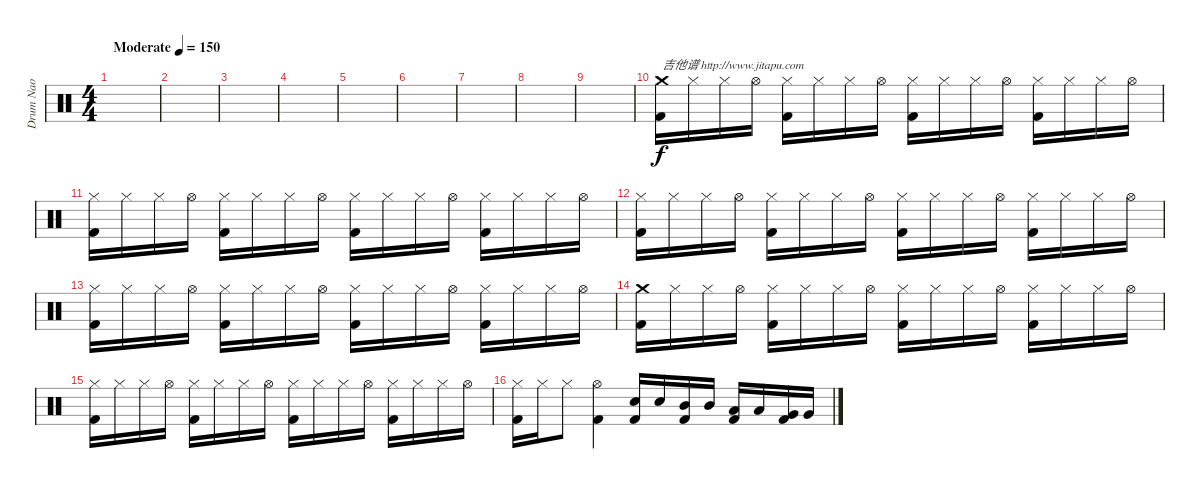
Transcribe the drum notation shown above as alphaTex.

\track ("Drum Nao" "Drum Nao") {instrument percussion}
\staff {score}
\articulation defaults
\ts (4 4)
\tempo (150 "Moderate")
\clef neutral
\ks c
|
|
|
|
|
|
|
|
|
("Crash medium (hit)" "Kick (hit) 2").16{txt "吉他谱 http://www.jitapu.com"} "Hi-Hat (closed)".16 "Hi-Hat (closed)".16 "Hi-Hat (open)".16 ("Hi-Hat (closed)" "Kick (hit) 2").16 "Hi-Hat (closed)".16 "Hi-Hat (closed)".16 "Hi-Hat (open)".16 ("Hi-Hat (closed)" "Kick (hit) 2").16 "Hi-Hat (closed)".16 "Hi-Hat (closed)".16 "Hi-Hat (open)".16 ("Hi-Hat (closed)" "Kick (hit) 2").16 "Hi-Hat (closed)".16 "Hi-Hat (closed)".16 "Hi-Hat (open)".16 |
("Hi-Hat (closed)" "Kick (hit) 2").16 "Hi-Hat (closed)".16 "Hi-Hat (closed)".16 "Hi-Hat (open)".16 ("Hi-Hat (closed)" "Kick (hit) 2").16 "Hi-Hat (closed)".16 "Hi-Hat (closed)".16 "Hi-Hat (open)".16 ("Hi-Hat (closed)" "Kick (hit) 2").16 "Hi-Hat (closed)".16 "Hi-Hat (closed)".16 "Hi-Hat (open)".16 ("Hi-Hat (closed)" "Kick (hit) 2").16 "Hi-Hat (closed)".16 "Hi-Hat (closed)".16 "Hi-Hat (open)".16 |
("Hi-Hat (closed)" "Kick (hit) 2").16 "Hi-Hat (closed)".16 "Hi-Hat (closed)".16 "Hi-Hat (open)".16 ("Hi-Hat (closed)" "Kick (hit) 2").16 "Hi-Hat (closed)".16 "Hi-Hat (closed)".16 "Hi-Hat (open)".16 ("Hi-Hat (closed)" "Kick (hit) 2").16 "Hi-Hat (closed)".16 "Hi-Hat (closed)".16 "Hi-Hat (open)".16 ("Hi-Hat (closed)" "Kick (hit) 2").16 "Hi-Hat (closed)".16 "Hi-Hat (closed)".16 "Hi-Hat (open)".16 |
("Hi-Hat (closed)" "Kick (hit) 2").16 "Hi-Hat (closed)".16 "Hi-Hat (closed)".16 "Hi-Hat (open)".16 ("Hi-Hat (closed)" "Kick (hit) 2").16 "Hi-Hat (closed)".16 "Hi-Hat (closed)".16 "Hi-Hat (open)".16 ("Hi-Hat (closed)" "Kick (hit) 2").16 "Hi-Hat (closed)".16 "Hi-Hat (closed)".16 "Hi-Hat (open)".16 ("Hi-Hat (closed)" "Kick (hit) 2").16 "Hi-Hat (closed)".16 "Hi-Hat (closed)".16 "Hi-Hat (open)".16 |
("Crash medium (hit)" "Kick (hit) 2").16 "Hi-Hat (closed)".16 "Hi-Hat (closed)".16 "Hi-Hat (open)".16 ("Hi-Hat (closed)" "Kick (hit) 2").16 "Hi-Hat (closed)".16 "Hi-Hat (closed)".16 "Hi-Hat (open)".16 ("Hi-Hat (closed)" "Kick (hit) 2").16 "Hi-Hat (closed)".16 "Hi-Hat (closed)".16 "Hi-Hat (open)".16 ("Hi-Hat (closed)" "Kick (hit) 2").16 "Hi-Hat (closed)".16 "Hi-Hat (closed)".16 "Hi-Hat (open)".16 |
("Hi-Hat (closed)" "Kick (hit) 2").16 "Hi-Hat (closed)".16 "Hi-Hat (closed)".16 "Hi-Hat (open)".16 ("Hi-Hat (closed)" "Kick (hit) 2").16 "Hi-Hat (closed)".16 "Hi-Hat (closed)".16 "Hi-Hat (open)".16 ("Hi-Hat (closed)" "Kick (hit) 2").16 "Hi-Hat (closed)".16 "Hi-Hat (closed)".16 "Hi-Hat (open)".16 ("Hi-Hat (closed)" "Kick (hit) 2").16 "Hi-Hat (closed)".16 "Hi-Hat (closed)".16 "Hi-Hat (open)".16 |
("Hi-Hat (closed)" "Kick (hit) 2").16 "Hi-Hat (closed)".16 "Hi-Hat (closed)".8 ("Hi-Hat (open)" "Kick (hit) 2").4 ("Electric Snare (hit)" "Kick (hit) 2").16 "Electric Snare (hit)".16 ("Mid Tom (hit)" "Kick (hit) 2").16 "Mid Tom (hit)".16 ("Low Tom (hit)" "Kick (hit) 2").16 "Low Tom (hit)".16 ("Very Low Tom (hit)" "Kick (hit) 2").16 "Very Low Tom (hit)".16
